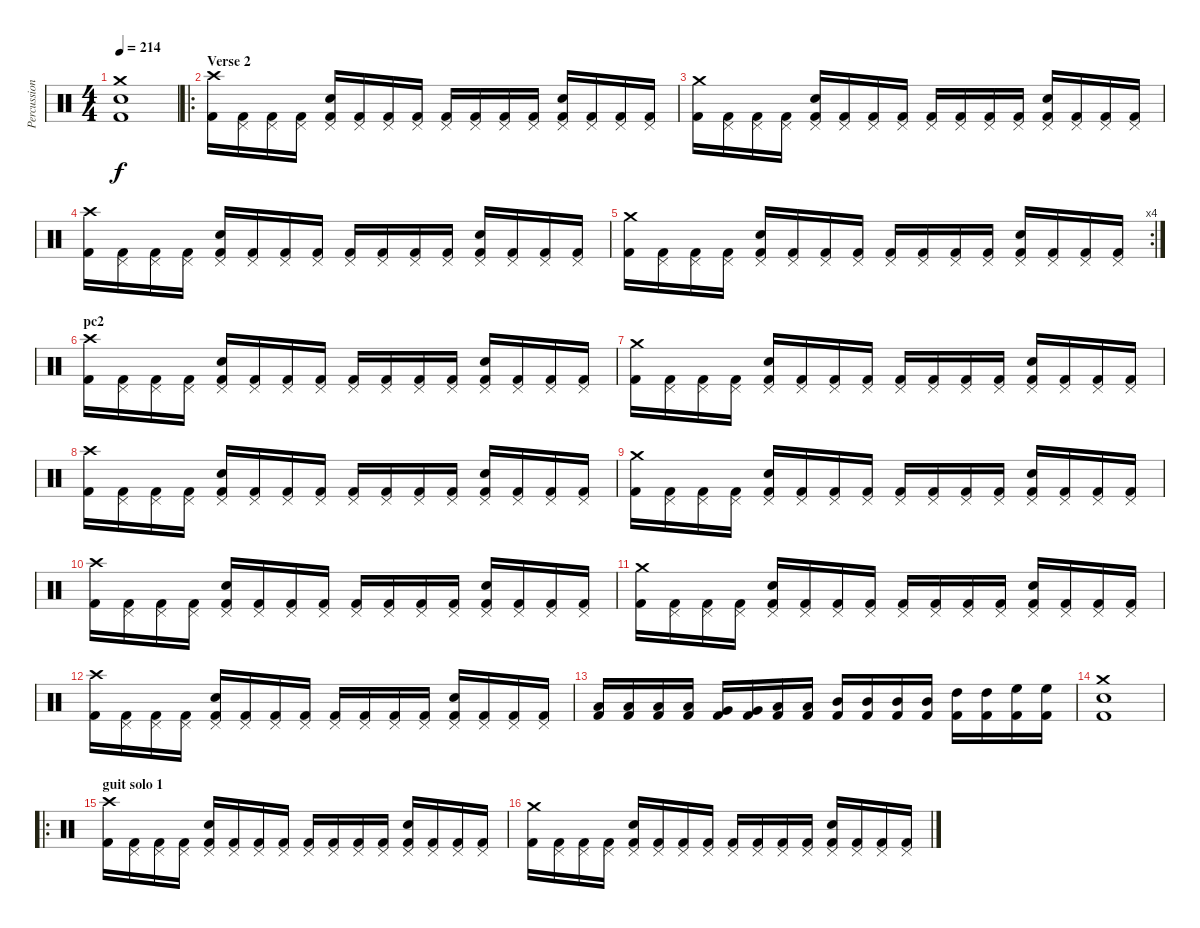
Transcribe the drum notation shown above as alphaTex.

\track ("Percussion" "Percussion") {instrument percussion}
\staff {score}
\articulation defaults
\ts (4 4)
\tempo 214
\clef neutral
\ks c
("Crash medium (hit)" "Snare (hit) 2" "Kick (hit) 2").1{dy f} |
\ro
\section ("" "Verse 2")
("Crash high (hit)" "Kick (hit) 2").16 ("Pedal Hi-Hat (hit)" "Kick (hit) 2").16 ("Pedal Hi-Hat (hit)" "Kick (hit) 2").16 ("Pedal Hi-Hat (hit)" "Kick (hit) 2").16 ("Pedal Hi-Hat (hit)" "Snare (hit) 2" "Kick (hit) 2").16 ("Pedal Hi-Hat (hit)" "Kick (hit) 2").16 ("Pedal Hi-Hat (hit)" "Kick (hit) 2").16 ("Pedal Hi-Hat (hit)" "Kick (hit) 2").16 ("Pedal Hi-Hat (hit)" "Kick (hit) 2").16 ("Pedal Hi-Hat (hit)" "Kick (hit) 2").16 ("Pedal Hi-Hat (hit)" "Kick (hit) 2").16 ("Pedal Hi-Hat (hit)" "Kick (hit) 2").16 ("Pedal Hi-Hat (hit)" "Snare (hit) 2" "Kick (hit) 2").16 ("Pedal Hi-Hat (hit)" "Kick (hit) 2").16 ("Pedal Hi-Hat (hit)" "Kick (hit) 2").16 ("Pedal Hi-Hat (hit)" "Kick (hit) 2").16 |
("Crash medium (hit)" "Kick (hit) 2").16 ("Pedal Hi-Hat (hit)" "Kick (hit) 2").16 ("Pedal Hi-Hat (hit)" "Kick (hit) 2").16 ("Pedal Hi-Hat (hit)" "Kick (hit) 2").16 ("Pedal Hi-Hat (hit)" "Snare (hit) 2" "Kick (hit) 2").16 ("Pedal Hi-Hat (hit)" "Kick (hit) 2").16 ("Pedal Hi-Hat (hit)" "Kick (hit) 2").16 ("Pedal Hi-Hat (hit)" "Kick (hit) 2").16 ("Pedal Hi-Hat (hit)" "Kick (hit) 2").16 ("Pedal Hi-Hat (hit)" "Kick (hit) 2").16 ("Pedal Hi-Hat (hit)" "Kick (hit) 2").16 ("Pedal Hi-Hat (hit)" "Kick (hit) 2").16 ("Pedal Hi-Hat (hit)" "Snare (hit) 2" "Kick (hit) 2").16 ("Pedal Hi-Hat (hit)" "Kick (hit) 2").16 ("Pedal Hi-Hat (hit)" "Kick (hit) 2").16 ("Pedal Hi-Hat (hit)" "Kick (hit) 2").16 |
("Crash high (hit)" "Kick (hit) 2").16 ("Pedal Hi-Hat (hit)" "Kick (hit) 2").16 ("Pedal Hi-Hat (hit)" "Kick (hit) 2").16 ("Pedal Hi-Hat (hit)" "Kick (hit) 2").16 ("Pedal Hi-Hat (hit)" "Snare (hit) 2" "Kick (hit) 2").16 ("Pedal Hi-Hat (hit)" "Kick (hit) 2").16 ("Pedal Hi-Hat (hit)" "Kick (hit) 2").16 ("Pedal Hi-Hat (hit)" "Kick (hit) 2").16 ("Pedal Hi-Hat (hit)" "Kick (hit) 2").16 ("Pedal Hi-Hat (hit)" "Kick (hit) 2").16 ("Pedal Hi-Hat (hit)" "Kick (hit) 2").16 ("Pedal Hi-Hat (hit)" "Kick (hit) 2").16 ("Pedal Hi-Hat (hit)" "Snare (hit) 2" "Kick (hit) 2").16 ("Pedal Hi-Hat (hit)" "Kick (hit) 2").16 ("Pedal Hi-Hat (hit)" "Kick (hit) 2").16 ("Pedal Hi-Hat (hit)" "Kick (hit) 2").16 |
\rc 4
("Crash medium (hit)" "Kick (hit) 2").16 ("Pedal Hi-Hat (hit)" "Kick (hit) 2").16 ("Pedal Hi-Hat (hit)" "Kick (hit) 2").16 ("Pedal Hi-Hat (hit)" "Kick (hit) 2").16 ("Pedal Hi-Hat (hit)" "Snare (hit) 2" "Kick (hit) 2").16 ("Pedal Hi-Hat (hit)" "Kick (hit) 2").16 ("Pedal Hi-Hat (hit)" "Kick (hit) 2").16 ("Pedal Hi-Hat (hit)" "Kick (hit) 2").16 ("Pedal Hi-Hat (hit)" "Kick (hit) 2").16 ("Pedal Hi-Hat (hit)" "Kick (hit) 2").16 ("Pedal Hi-Hat (hit)" "Kick (hit) 2").16 ("Pedal Hi-Hat (hit)" "Kick (hit) 2").16 ("Pedal Hi-Hat (hit)" "Snare (hit) 2" "Kick (hit) 2").16 ("Pedal Hi-Hat (hit)" "Kick (hit) 2").16 ("Pedal Hi-Hat (hit)" "Kick (hit) 2").16 ("Pedal Hi-Hat (hit)" "Kick (hit) 2").16 |
\section ("" "pc2")
("Crash high (hit)" "Kick (hit) 2").16 ("Pedal Hi-Hat (hit)" "Kick (hit) 2").16 ("Pedal Hi-Hat (hit)" "Kick (hit) 2").16 ("Pedal Hi-Hat (hit)" "Kick (hit) 2").16 ("Pedal Hi-Hat (hit)" "Snare (hit) 2" "Kick (hit) 2").16 ("Pedal Hi-Hat (hit)" "Kick (hit) 2").16 ("Pedal Hi-Hat (hit)" "Kick (hit) 2").16 ("Pedal Hi-Hat (hit)" "Kick (hit) 2").16 ("Pedal Hi-Hat (hit)" "Kick (hit) 2").16 ("Pedal Hi-Hat (hit)" "Kick (hit) 2").16 ("Pedal Hi-Hat (hit)" "Kick (hit) 2").16 ("Pedal Hi-Hat (hit)" "Kick (hit) 2").16 ("Pedal Hi-Hat (hit)" "Snare (hit) 2" "Kick (hit) 2").16 ("Pedal Hi-Hat (hit)" "Kick (hit) 2").16 ("Pedal Hi-Hat (hit)" "Kick (hit) 2").16 ("Pedal Hi-Hat (hit)" "Kick (hit) 2").16 |
("Crash medium (hit)" "Kick (hit) 2").16 ("Pedal Hi-Hat (hit)" "Kick (hit) 2").16 ("Pedal Hi-Hat (hit)" "Kick (hit) 2").16 ("Pedal Hi-Hat (hit)" "Kick (hit) 2").16 ("Pedal Hi-Hat (hit)" "Snare (hit) 2" "Kick (hit) 2").16 ("Pedal Hi-Hat (hit)" "Kick (hit) 2").16 ("Pedal Hi-Hat (hit)" "Kick (hit) 2").16 ("Pedal Hi-Hat (hit)" "Kick (hit) 2").16 ("Pedal Hi-Hat (hit)" "Kick (hit) 2").16 ("Pedal Hi-Hat (hit)" "Kick (hit) 2").16 ("Pedal Hi-Hat (hit)" "Kick (hit) 2").16 ("Pedal Hi-Hat (hit)" "Kick (hit) 2").16 ("Pedal Hi-Hat (hit)" "Snare (hit) 2" "Kick (hit) 2").16 ("Pedal Hi-Hat (hit)" "Kick (hit) 2").16 ("Pedal Hi-Hat (hit)" "Kick (hit) 2").16 ("Pedal Hi-Hat (hit)" "Kick (hit) 2").16 |
("Crash high (hit)" "Kick (hit) 2").16 ("Pedal Hi-Hat (hit)" "Kick (hit) 2").16 ("Pedal Hi-Hat (hit)" "Kick (hit) 2").16 ("Pedal Hi-Hat (hit)" "Kick (hit) 2").16 ("Pedal Hi-Hat (hit)" "Snare (hit) 2" "Kick (hit) 2").16 ("Pedal Hi-Hat (hit)" "Kick (hit) 2").16 ("Pedal Hi-Hat (hit)" "Kick (hit) 2").16 ("Pedal Hi-Hat (hit)" "Kick (hit) 2").16 ("Pedal Hi-Hat (hit)" "Kick (hit) 2").16 ("Pedal Hi-Hat (hit)" "Kick (hit) 2").16 ("Pedal Hi-Hat (hit)" "Kick (hit) 2").16 ("Pedal Hi-Hat (hit)" "Kick (hit) 2").16 ("Pedal Hi-Hat (hit)" "Snare (hit) 2" "Kick (hit) 2").16 ("Pedal Hi-Hat (hit)" "Kick (hit) 2").16 ("Pedal Hi-Hat (hit)" "Kick (hit) 2").16 ("Pedal Hi-Hat (hit)" "Kick (hit) 2").16 |
("Crash medium (hit)" "Kick (hit) 2").16 ("Pedal Hi-Hat (hit)" "Kick (hit) 2").16 ("Pedal Hi-Hat (hit)" "Kick (hit) 2").16 ("Pedal Hi-Hat (hit)" "Kick (hit) 2").16 ("Pedal Hi-Hat (hit)" "Snare (hit) 2" "Kick (hit) 2").16 ("Pedal Hi-Hat (hit)" "Kick (hit) 2").16 ("Pedal Hi-Hat (hit)" "Kick (hit) 2").16 ("Pedal Hi-Hat (hit)" "Kick (hit) 2").16 ("Pedal Hi-Hat (hit)" "Kick (hit) 2").16 ("Pedal Hi-Hat (hit)" "Kick (hit) 2").16 ("Pedal Hi-Hat (hit)" "Kick (hit) 2").16 ("Pedal Hi-Hat (hit)" "Kick (hit) 2").16 ("Pedal Hi-Hat (hit)" "Snare (hit) 2" "Kick (hit) 2").16 ("Pedal Hi-Hat (hit)" "Kick (hit) 2").16 ("Pedal Hi-Hat (hit)" "Kick (hit) 2").16 ("Pedal Hi-Hat (hit)" "Kick (hit) 2").16 |
("Crash high (hit)" "Kick (hit) 2").16 ("Pedal Hi-Hat (hit)" "Kick (hit) 2").16 ("Pedal Hi-Hat (hit)" "Kick (hit) 2").16 ("Pedal Hi-Hat (hit)" "Kick (hit) 2").16 ("Pedal Hi-Hat (hit)" "Snare (hit) 2" "Kick (hit) 2").16 ("Pedal Hi-Hat (hit)" "Kick (hit) 2").16 ("Pedal Hi-Hat (hit)" "Kick (hit) 2").16 ("Pedal Hi-Hat (hit)" "Kick (hit) 2").16 ("Pedal Hi-Hat (hit)" "Kick (hit) 2").16 ("Pedal Hi-Hat (hit)" "Kick (hit) 2").16 ("Pedal Hi-Hat (hit)" "Kick (hit) 2").16 ("Pedal Hi-Hat (hit)" "Kick (hit) 2").16 ("Pedal Hi-Hat (hit)" "Snare (hit) 2" "Kick (hit) 2").16 ("Pedal Hi-Hat (hit)" "Kick (hit) 2").16 ("Pedal Hi-Hat (hit)" "Kick (hit) 2").16 ("Pedal Hi-Hat (hit)" "Kick (hit) 2").16 |
("Crash medium (hit)" "Kick (hit) 2").16 ("Pedal Hi-Hat (hit)" "Kick (hit) 2").16 ("Pedal Hi-Hat (hit)" "Kick (hit) 2").16 ("Pedal Hi-Hat (hit)" "Kick (hit) 2").16 ("Pedal Hi-Hat (hit)" "Snare (hit) 2" "Kick (hit) 2").16 ("Pedal Hi-Hat (hit)" "Kick (hit) 2").16 ("Pedal Hi-Hat (hit)" "Kick (hit) 2").16 ("Pedal Hi-Hat (hit)" "Kick (hit) 2").16 ("Pedal Hi-Hat (hit)" "Kick (hit) 2").16 ("Pedal Hi-Hat (hit)" "Kick (hit) 2").16 ("Pedal Hi-Hat (hit)" "Kick (hit) 2").16 ("Pedal Hi-Hat (hit)" "Kick (hit) 2").16 ("Pedal Hi-Hat (hit)" "Snare (hit) 2" "Kick (hit) 2").16 ("Pedal Hi-Hat (hit)" "Kick (hit) 2").16 ("Pedal Hi-Hat (hit)" "Kick (hit) 2").16 ("Pedal Hi-Hat (hit)" "Kick (hit) 2").16 |
("Crash high (hit)" "Kick (hit) 2").16 ("Pedal Hi-Hat (hit)" "Kick (hit) 2").16 ("Pedal Hi-Hat (hit)" "Kick (hit) 2").16 ("Pedal Hi-Hat (hit)" "Kick (hit) 2").16 ("Pedal Hi-Hat (hit)" "Snare (hit) 2" "Kick (hit) 2").16 ("Pedal Hi-Hat (hit)" "Kick (hit) 2").16 ("Pedal Hi-Hat (hit)" "Kick (hit) 2").16 ("Pedal Hi-Hat (hit)" "Kick (hit) 2").16 ("Pedal Hi-Hat (hit)" "Kick (hit) 2").16 ("Pedal Hi-Hat (hit)" "Kick (hit) 2").16 ("Pedal Hi-Hat (hit)" "Kick (hit) 2").16 ("Pedal Hi-Hat (hit)" "Kick (hit) 2").16 ("Pedal Hi-Hat (hit)" "Snare (hit) 2" "Kick (hit) 2").16 ("Pedal Hi-Hat (hit)" "Kick (hit) 2").16 ("Pedal Hi-Hat (hit)" "Kick (hit) 2").16 ("Pedal Hi-Hat (hit)" "Kick (hit) 2").16 |
("Low Floor Tom (hit)" "Kick (hit) 2").16 ("Low Floor Tom (hit)" "Kick (hit) 2").16 ("Low Floor Tom (hit)" "Kick (hit) 2").16 ("Low Floor Tom (hit)" "Kick (hit) 2").16 ("Very Low Tom (hit)" "Kick (hit) 2").16 ("Very Low Tom (hit)" "Kick (hit) 2").16 ("Low Tom (hit)" "Kick (hit) 2").16 ("Low Tom (hit)" "Kick (hit) 2").16 ("Mid Tom (hit)" "Kick (hit) 2").16 ("Mid Tom (hit)" "Kick (hit) 2").16 ("Mid Tom (hit)" "Kick (hit) 2").16 ("Mid Tom (hit)" "Kick (hit) 2").16 ("High Tom (hit)" "Kick (hit) 2").16 ("High Tom (hit)" "Kick (hit) 2").16 ("High Floor Tom (hit)" "Kick (hit) 2").16 ("High Floor Tom (hit)" "Kick (hit) 2").16 |
("Crash medium (hit)" "Snare (hit) 2" "Kick (hit) 2").1 |
\ro
\section ("" "guit solo 1")
("Crash high (hit)" "Kick (hit) 2").16 ("Pedal Hi-Hat (hit)" "Kick (hit) 2").16 ("Pedal Hi-Hat (hit)" "Kick (hit) 2").16 ("Pedal Hi-Hat (hit)" "Kick (hit) 2").16 ("Pedal Hi-Hat (hit)" "Snare (hit) 2" "Kick (hit) 2").16 ("Pedal Hi-Hat (hit)" "Kick (hit) 2").16 ("Pedal Hi-Hat (hit)" "Kick (hit) 2").16 ("Pedal Hi-Hat (hit)" "Kick (hit) 2").16 ("Pedal Hi-Hat (hit)" "Kick (hit) 2").16 ("Pedal Hi-Hat (hit)" "Kick (hit) 2").16 ("Pedal Hi-Hat (hit)" "Kick (hit) 2").16 ("Pedal Hi-Hat (hit)" "Kick (hit) 2").16 ("Pedal Hi-Hat (hit)" "Snare (hit) 2" "Kick (hit) 2").16 ("Pedal Hi-Hat (hit)" "Kick (hit) 2").16 ("Pedal Hi-Hat (hit)" "Kick (hit) 2").16 ("Pedal Hi-Hat (hit)" "Kick (hit) 2").16 |
("Crash medium (hit)" "Kick (hit) 2").16 ("Pedal Hi-Hat (hit)" "Kick (hit) 2").16 ("Pedal Hi-Hat (hit)" "Kick (hit) 2").16 ("Pedal Hi-Hat (hit)" "Kick (hit) 2").16 ("Pedal Hi-Hat (hit)" "Snare (hit) 2" "Kick (hit) 2").16 ("Pedal Hi-Hat (hit)" "Kick (hit) 2").16 ("Pedal Hi-Hat (hit)" "Kick (hit) 2").16 ("Pedal Hi-Hat (hit)" "Kick (hit) 2").16 ("Pedal Hi-Hat (hit)" "Kick (hit) 2").16 ("Pedal Hi-Hat (hit)" "Kick (hit) 2").16 ("Pedal Hi-Hat (hit)" "Kick (hit) 2").16 ("Pedal Hi-Hat (hit)" "Kick (hit) 2").16 ("Pedal Hi-Hat (hit)" "Snare (hit) 2" "Kick (hit) 2").16 ("Pedal Hi-Hat (hit)" "Kick (hit) 2").16 ("Pedal Hi-Hat (hit)" "Kick (hit) 2").16 ("Pedal Hi-Hat (hit)" "Kick (hit) 2").16
